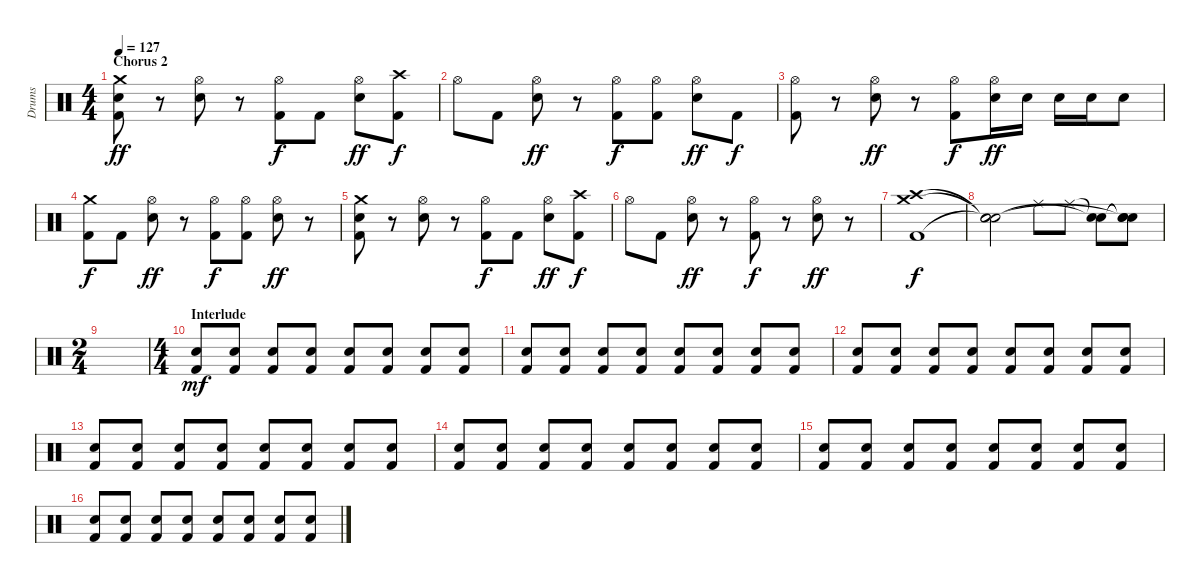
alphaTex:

\track ("Drums" "Drums") {instrument percussion}
\staff {score}
\articulation defaults
\ts (4 4)
\section ("" "Chorus 2")
\tempo 127
\clef neutral
\ks c
("Crash medium (hit)" "Electric Snare (hit)" "Kick (hit) 2").8{dy ff} r.8 ("Hi-Hat (open)" "Electric Snare (hit)").8 r.8 ("Hi-Hat (open)" "Kick (hit) 2").8{dy f} "Kick (hit) 2".8 ("Hi-Hat (open)" "Electric Snare (hit)").8{dy ff} ("Crash high (hit)" "Kick (hit) 2").8{dy f} |
"Hi-Hat (open)".8 "Kick (hit) 2".8 ("Hi-Hat (open)" "Electric Snare (hit)").8{dy ff} r.8 ("Hi-Hat (open)" "Kick (hit) 2").8{dy f} ("Hi-Hat (open)" "Kick (hit) 2").8 ("Hi-Hat (open)" "Electric Snare (hit)").8{dy ff} "Kick (hit) 2".8{dy f} |
("Hi-Hat (open)" "Kick (hit) 2").8 r.8 ("Hi-Hat (open)" "Electric Snare (hit)").8{dy ff} r.8 ("Hi-Hat (open)" "Kick (hit) 2").8{dy f} ("Hi-Hat (open)" "Electric Snare (hit)").16{dy ff} "Electric Snare (hit)".16 "Electric Snare (hit)".16 "Electric Snare (hit)".16 "Electric Snare (hit)".8 |
("Crash medium (hit)" "Kick (hit) 2").8{dy f} "Kick (hit) 2".8 ("Hi-Hat (open)" "Electric Snare (hit)").8{dy ff} r.8 ("Hi-Hat (open)" "Kick (hit) 2").8{dy f} ("Hi-Hat (open)" "Kick (hit) 2").8 ("Hi-Hat (open)" "Electric Snare (hit)").8{dy ff} r.8 |
("Crash medium (hit)" "Electric Snare (hit)" "Kick (hit) 2").8 r.8 ("Hi-Hat (open)" "Electric Snare (hit)").8 r.8 ("Hi-Hat (open)" "Kick (hit) 2").8{dy f} "Kick (hit) 2".8 ("Hi-Hat (open)" "Electric Snare (hit)").8{dy ff} ("Crash high (hit)" "Kick (hit) 2").8{dy f} |
"Hi-Hat (open)".8 "Kick (hit) 2".8 ("Hi-Hat (open)" "Electric Snare (hit)").8{dy ff} r.8 ("Hi-Hat (open)" "Kick (hit) 2").8{dy f} r.8 ("Hi-Hat (open)" "Electric Snare (hit)").8{dy ff} r.8 |
("Crash high (hit)" "Crash medium (hit)" "Kick (hit) 2").1{dy f} |
("Snare (hit)"{t} "Snare (hit)"{t} "Snare (hit)"{t}).2 "Ride (middle)".8 "Ride (middle)".8 ("Snare (hit)"{t} "Snare (hit)"{t}).8 ("Snare (hit)"{t} "Snare (hit)"{t} "Snare (hit)"{t}).8 |
\ts (2 4)
|
\ts (4 4)
\section ("" "Interlude")
("Electric Snare (hit)" "Kick (hit) 2").8{dy mf} ("Electric Snare (hit)" "Kick (hit) 2").8 ("Electric Snare (hit)" "Kick (hit) 2").8 ("Electric Snare (hit)" "Kick (hit) 2").8 ("Electric Snare (hit)" "Kick (hit) 2").8 ("Electric Snare (hit)" "Kick (hit) 2").8 ("Electric Snare (hit)" "Kick (hit) 2").8 ("Electric Snare (hit)" "Kick (hit) 2").8 |
("Electric Snare (hit)" "Kick (hit) 2").8 ("Electric Snare (hit)" "Kick (hit) 2").8 ("Electric Snare (hit)" "Kick (hit) 2").8 ("Electric Snare (hit)" "Kick (hit) 2").8 ("Electric Snare (hit)" "Kick (hit) 2").8 ("Electric Snare (hit)" "Kick (hit) 2").8 ("Electric Snare (hit)" "Kick (hit) 2").8 ("Electric Snare (hit)" "Kick (hit) 2").8 |
("Electric Snare (hit)" "Kick (hit) 2").8 ("Electric Snare (hit)" "Kick (hit) 2").8 ("Electric Snare (hit)" "Kick (hit) 2").8 ("Electric Snare (hit)" "Kick (hit) 2").8 ("Electric Snare (hit)" "Kick (hit) 2").8 ("Electric Snare (hit)" "Kick (hit) 2").8 ("Electric Snare (hit)" "Kick (hit) 2").8 ("Electric Snare (hit)" "Kick (hit) 2").8 |
("Electric Snare (hit)" "Kick (hit) 2").8 ("Electric Snare (hit)" "Kick (hit) 2").8 ("Electric Snare (hit)" "Kick (hit) 2").8 ("Electric Snare (hit)" "Kick (hit) 2").8 ("Electric Snare (hit)" "Kick (hit) 2").8 ("Electric Snare (hit)" "Kick (hit) 2").8 ("Electric Snare (hit)" "Kick (hit) 2").8 ("Electric Snare (hit)" "Kick (hit) 2").8 |
("Electric Snare (hit)" "Kick (hit) 2").8 ("Electric Snare (hit)" "Kick (hit) 2").8 ("Electric Snare (hit)" "Kick (hit) 2").8 ("Electric Snare (hit)" "Kick (hit) 2").8 ("Electric Snare (hit)" "Kick (hit) 2").8 ("Electric Snare (hit)" "Kick (hit) 2").8 ("Electric Snare (hit)" "Kick (hit) 2").8 ("Electric Snare (hit)" "Kick (hit) 2").8 |
("Electric Snare (hit)" "Kick (hit) 2").8 ("Electric Snare (hit)" "Kick (hit) 2").8 ("Electric Snare (hit)" "Kick (hit) 2").8 ("Electric Snare (hit)" "Kick (hit) 2").8 ("Electric Snare (hit)" "Kick (hit) 2").8 ("Electric Snare (hit)" "Kick (hit) 2").8 ("Electric Snare (hit)" "Kick (hit) 2").8 ("Electric Snare (hit)" "Kick (hit) 2").8 |
("Electric Snare (hit)" "Kick (hit) 2").8 ("Electric Snare (hit)" "Kick (hit) 2").8 ("Electric Snare (hit)" "Kick (hit) 2").8 ("Electric Snare (hit)" "Kick (hit) 2").8 ("Electric Snare (hit)" "Kick (hit) 2").8 ("Electric Snare (hit)" "Kick (hit) 2").8 ("Electric Snare (hit)" "Kick (hit) 2").8 ("Electric Snare (hit)" "Kick (hit) 2").8
